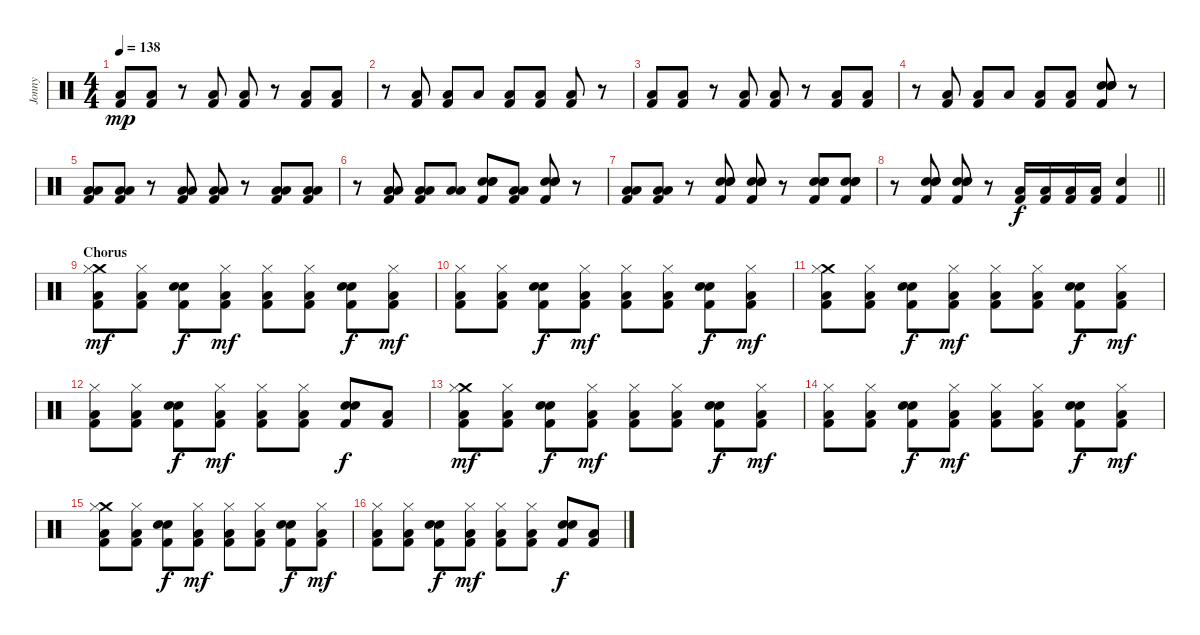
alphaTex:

\track ("Jonny" "Jonny") {instrument percussion}
\staff {score}
\articulation defaults
\ts (4 4)
\tempo 138
\clef neutral
\ks c
("Low Floor Tom (hit)" "Kick (hit) 2").8{dy mp} ("Low Floor Tom (hit)" "Kick (hit) 2").8 r.8 ("Low Floor Tom (hit)" "Kick (hit) 2").8 ("Low Floor Tom (hit)" "Kick (hit) 2").8 r.8 ("Low Floor Tom (hit)" "Kick (hit) 2").8 ("Low Floor Tom (hit)" "Kick (hit) 2").8 |
r.8 ("Low Floor Tom (hit)" "Kick (hit) 2").8 ("Low Floor Tom (hit)" "Kick (hit) 2").8 "Low Floor Tom (hit)".8 ("Low Floor Tom (hit)" "Kick (hit) 2").8 ("Low Floor Tom (hit)" "Kick (hit) 2").8 ("Low Floor Tom (hit)" "Kick (hit) 2").8 r.8 |
("Low Floor Tom (hit)" "Kick (hit) 2").8 ("Low Floor Tom (hit)" "Kick (hit) 2").8 r.8 ("Low Floor Tom (hit)" "Kick (hit) 2").8 ("Low Floor Tom (hit)" "Kick (hit) 2").8 r.8 ("Low Floor Tom (hit)" "Kick (hit) 2").8 ("Low Floor Tom (hit)" "Kick (hit) 2").8 |
r.8 ("Low Floor Tom (hit)" "Kick (hit) 2").8 ("Low Floor Tom (hit)" "Kick (hit) 2").8 "Low Floor Tom (hit)".8 ("Low Floor Tom (hit)" "Kick (hit) 2").8 ("Low Floor Tom (hit)" "Kick (hit) 2").8 ("Electric Snare (hit)" "Electric Snare (hit)" "Electric Snare (hit)" "Kick (hit) 2").8 r.8 |
("Low Floor Tom (hit)" "Low Floor Tom (hit)" "Kick (hit) 2").8 ("Low Floor Tom (hit)" "Low Floor Tom (hit)" "Kick (hit) 2").8 r.8 ("Low Floor Tom (hit)" "Low Floor Tom (hit)" "Kick (hit) 2").8 ("Low Floor Tom (hit)" "Low Floor Tom (hit)" "Kick (hit) 2").8 r.8 ("Low Floor Tom (hit)" "Low Floor Tom (hit)" "Kick (hit) 2").8 ("Low Floor Tom (hit)" "Low Floor Tom (hit)" "Kick (hit) 2").8 |
r.8 ("Low Floor Tom (hit)" "Low Floor Tom (hit)" "Kick (hit) 2").8 ("Low Floor Tom (hit)" "Low Floor Tom (hit)" "Kick (hit) 2").8 ("Low Floor Tom (hit)" "Low Floor Tom (hit)").8 ("Electric Snare (hit)" "Electric Snare (hit)" "Electric Snare (hit)" "Kick (hit) 2").8 ("Low Floor Tom (hit)" "Low Floor Tom (hit)" "Kick (hit) 2").8 ("Electric Snare (hit)" "Electric Snare (hit)" "Electric Snare (hit)" "Kick (hit) 2").8 r.8 |
("Low Floor Tom (hit)" "Low Floor Tom (hit)" "Kick (hit) 2").8 ("Low Floor Tom (hit)" "Low Floor Tom (hit)" "Kick (hit) 2").8 r.8 ("Electric Snare (hit)" "Electric Snare (hit)" "Electric Snare (hit)" "Kick (hit) 2").8 ("Electric Snare (hit)" "Electric Snare (hit)" "Electric Snare (hit)" "Kick (hit) 2").8 r.8 ("Electric Snare (hit)" "Electric Snare (hit)" "Electric Snare (hit)" "Kick (hit) 2").8 ("Electric Snare (hit)" "Electric Snare (hit)" "Electric Snare (hit)" "Kick (hit) 2").8 |
\barLineRight lightlight
r.8 ("Electric Snare (hit)" "Electric Snare (hit)" "Electric Snare (hit)" "Kick (hit) 2").8 ("Electric Snare (hit)" "Electric Snare (hit)" "Electric Snare (hit)" "Kick (hit) 2").8 r.8 ("Low Floor Tom (hit)" "Kick (hit) 2").16{dy f} ("Low Floor Tom (hit)" "Kick (hit) 2").16 ("Low Floor Tom (hit)" "Kick (hit) 2").16 ("Low Floor Tom (hit)" "Kick (hit) 2").16 ("Electric Snare (hit)" "Kick (hit) 2").4 |
\section ("" "Chorus")
("Crash medium (hit)" "Hi-Hat (closed)" "Low Floor Tom (hit)" "Kick (hit) 2").8{dy mf} ("Hi-Hat (closed)" "Low Floor Tom (hit)" "Kick (hit) 2").8 ("Electric Snare (hit)" "Electric Snare (hit)" "Kick (hit) 2").8{dy f} ("Hi-Hat (closed)" "Low Floor Tom (hit)" "Kick (hit) 2").8{dy mf} ("Hi-Hat (closed)" "Low Floor Tom (hit)" "Kick (hit) 2").8 ("Hi-Hat (closed)" "Low Floor Tom (hit)" "Kick (hit) 2").8 ("Electric Snare (hit)" "Electric Snare (hit)" "Kick (hit) 2").8{dy f} ("Hi-Hat (closed)" "Low Floor Tom (hit)" "Kick (hit) 2").8{dy mf} |
("Hi-Hat (closed)" "Low Floor Tom (hit)" "Kick (hit) 2").8 ("Hi-Hat (closed)" "Low Floor Tom (hit)" "Kick (hit) 2").8 ("Electric Snare (hit)" "Electric Snare (hit)" "Kick (hit) 2").8{dy f} ("Hi-Hat (closed)" "Low Floor Tom (hit)" "Kick (hit) 2").8{dy mf} ("Hi-Hat (closed)" "Low Floor Tom (hit)" "Kick (hit) 2").8 ("Hi-Hat (closed)" "Low Floor Tom (hit)" "Kick (hit) 2").8 ("Electric Snare (hit)" "Electric Snare (hit)" "Kick (hit) 2").8{dy f} ("Hi-Hat (closed)" "Low Floor Tom (hit)" "Kick (hit) 2").8{dy mf} |
("Crash medium (hit)" "Hi-Hat (closed)" "Low Floor Tom (hit)" "Kick (hit) 2").8 ("Hi-Hat (closed)" "Low Floor Tom (hit)" "Kick (hit) 2").8 ("Electric Snare (hit)" "Electric Snare (hit)" "Kick (hit) 2").8{dy f} ("Hi-Hat (closed)" "Low Floor Tom (hit)" "Kick (hit) 2").8{dy mf} ("Hi-Hat (closed)" "Low Floor Tom (hit)" "Kick (hit) 2").8 ("Hi-Hat (closed)" "Low Floor Tom (hit)" "Kick (hit) 2").8 ("Electric Snare (hit)" "Electric Snare (hit)" "Kick (hit) 2").8{dy f} ("Hi-Hat (closed)" "Low Floor Tom (hit)" "Kick (hit) 2").8{dy mf} |
("Hi-Hat (closed)" "Low Floor Tom (hit)" "Kick (hit) 2").8 ("Hi-Hat (closed)" "Low Floor Tom (hit)" "Kick (hit) 2").8 ("Electric Snare (hit)" "Electric Snare (hit)" "Kick (hit) 2").8{dy f} ("Hi-Hat (closed)" "Low Floor Tom (hit)" "Kick (hit) 2").8{dy mf} ("Hi-Hat (closed)" "Low Floor Tom (hit)" "Kick (hit) 2").8 ("Hi-Hat (closed)" "Low Floor Tom (hit)" "Kick (hit) 2").8 ("Electric Snare (hit)" "Electric Snare (hit)" "Kick (hit) 2").8{dy f} ("Low Floor Tom (hit)" "Kick (hit) 2").8 |
("Crash medium (hit)" "Hi-Hat (closed)" "Low Floor Tom (hit)" "Kick (hit) 2").8{dy mf} ("Hi-Hat (closed)" "Low Floor Tom (hit)" "Kick (hit) 2").8 ("Electric Snare (hit)" "Electric Snare (hit)" "Kick (hit) 2").8{dy f} ("Hi-Hat (closed)" "Low Floor Tom (hit)" "Kick (hit) 2").8{dy mf} ("Hi-Hat (closed)" "Low Floor Tom (hit)" "Kick (hit) 2").8 ("Hi-Hat (closed)" "Low Floor Tom (hit)" "Kick (hit) 2").8 ("Electric Snare (hit)" "Electric Snare (hit)" "Kick (hit) 2").8{dy f} ("Hi-Hat (closed)" "Low Floor Tom (hit)" "Kick (hit) 2").8{dy mf} |
("Hi-Hat (closed)" "Low Floor Tom (hit)" "Kick (hit) 2").8 ("Hi-Hat (closed)" "Low Floor Tom (hit)" "Kick (hit) 2").8 ("Electric Snare (hit)" "Electric Snare (hit)" "Kick (hit) 2").8{dy f} ("Hi-Hat (closed)" "Low Floor Tom (hit)" "Kick (hit) 2").8{dy mf} ("Hi-Hat (closed)" "Low Floor Tom (hit)" "Kick (hit) 2").8 ("Hi-Hat (closed)" "Low Floor Tom (hit)" "Kick (hit) 2").8 ("Electric Snare (hit)" "Electric Snare (hit)" "Kick (hit) 2").8{dy f} ("Hi-Hat (closed)" "Low Floor Tom (hit)" "Kick (hit) 2").8{dy mf} |
("Crash medium (hit)" "Hi-Hat (closed)" "Low Floor Tom (hit)" "Kick (hit) 2").8 ("Hi-Hat (closed)" "Low Floor Tom (hit)" "Kick (hit) 2").8 ("Electric Snare (hit)" "Electric Snare (hit)" "Kick (hit) 2").8{dy f} ("Hi-Hat (closed)" "Low Floor Tom (hit)" "Kick (hit) 2").8{dy mf} ("Hi-Hat (closed)" "Low Floor Tom (hit)" "Kick (hit) 2").8 ("Hi-Hat (closed)" "Low Floor Tom (hit)" "Kick (hit) 2").8 ("Electric Snare (hit)" "Electric Snare (hit)" "Kick (hit) 2").8{dy f} ("Hi-Hat (closed)" "Low Floor Tom (hit)" "Kick (hit) 2").8{dy mf} |
("Hi-Hat (closed)" "Low Floor Tom (hit)" "Kick (hit) 2").8 ("Hi-Hat (closed)" "Low Floor Tom (hit)" "Kick (hit) 2").8 ("Electric Snare (hit)" "Electric Snare (hit)" "Kick (hit) 2").8{dy f} ("Hi-Hat (closed)" "Low Floor Tom (hit)" "Kick (hit) 2").8{dy mf} ("Hi-Hat (closed)" "Low Floor Tom (hit)" "Kick (hit) 2").8 ("Hi-Hat (closed)" "Low Floor Tom (hit)" "Kick (hit) 2").8 ("Electric Snare (hit)" "Electric Snare (hit)" "Kick (hit) 2").8{dy f} ("Low Floor Tom (hit)" "Kick (hit) 2").8
